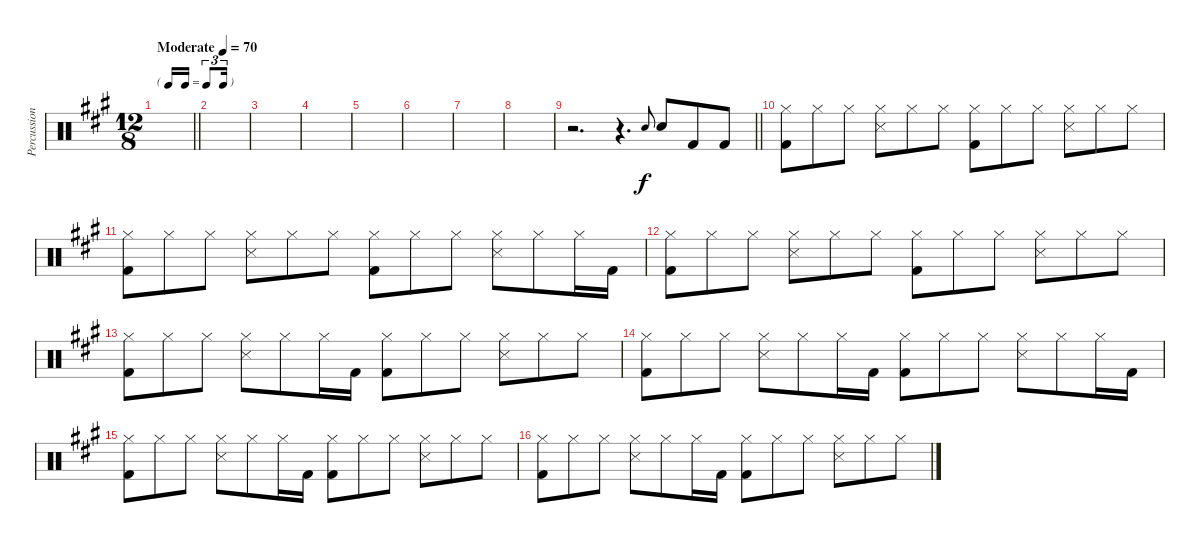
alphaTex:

\track ("Percussion" "Percussion") {instrument percussion}
\staff {score}
\articulation defaults
\ts (12 8)
\tf triplet16th
\tempo (70 "Moderate")
\tempo 60
\tempo (70 "Moderate")
\clef neutral
\barLineRight lightlight
\ks a
|
|
|
|
|
|
|
|
\barLineRight lightlight
r.2{d} r.4{d} "Snare (hit) 2".8{gr onbeat} "Snare (hit) 2".8 "Kick (hit) 2".8 "Kick (hit) 2".8 |
("Hi-Hat (closed)" "Kick (hit) 2").8 "Hi-Hat (closed)".8 "Hi-Hat (closed)".8 ("Hi-Hat (closed)" "Snare (side stick) 3").8 "Hi-Hat (closed)".8 "Hi-Hat (closed)".8 ("Hi-Hat (closed)" "Kick (hit) 2").8 "Hi-Hat (closed)".8 "Hi-Hat (closed)".8 ("Hi-Hat (closed)" "Snare (side stick) 3").8 "Hi-Hat (closed)".8 "Hi-Hat (closed)".8 |
("Hi-Hat (closed)" "Kick (hit) 2").8 "Hi-Hat (closed)".8 "Hi-Hat (closed)".8 ("Hi-Hat (closed)" "Snare (side stick) 3").8 "Hi-Hat (closed)".8 "Hi-Hat (closed)".8 ("Hi-Hat (closed)" "Kick (hit) 2").8 "Hi-Hat (closed)".8 "Hi-Hat (closed)".8 ("Hi-Hat (closed)" "Snare (side stick) 3").8 "Hi-Hat (closed)".8 "Hi-Hat (closed)".16 "Kick (hit) 2".16 |
("Hi-Hat (closed)" "Kick (hit) 2").8 "Hi-Hat (closed)".8 "Hi-Hat (closed)".8 ("Hi-Hat (closed)" "Snare (side stick) 3").8 "Hi-Hat (closed)".8 "Hi-Hat (closed)".8 ("Hi-Hat (closed)" "Kick (hit) 2").8 "Hi-Hat (closed)".8 "Hi-Hat (closed)".8 ("Hi-Hat (closed)" "Snare (side stick) 3").8 "Hi-Hat (closed)".8 "Hi-Hat (closed)".8 |
("Hi-Hat (closed)" "Kick (hit) 2").8 "Hi-Hat (closed)".8 "Hi-Hat (closed)".8 ("Hi-Hat (closed)" "Snare (side stick) 3").8 "Hi-Hat (closed)".8 "Hi-Hat (closed)".16 "Kick (hit) 2".16 ("Hi-Hat (closed)" "Kick (hit) 2").8 "Hi-Hat (closed)".8 "Hi-Hat (closed)".8 ("Hi-Hat (closed)" "Snare (side stick) 3").8 "Hi-Hat (closed)".8 "Hi-Hat (closed)".8 |
("Hi-Hat (closed)" "Kick (hit) 2").8 "Hi-Hat (closed)".8 "Hi-Hat (closed)".8 ("Hi-Hat (closed)" "Snare (side stick) 3").8 "Hi-Hat (closed)".8 "Hi-Hat (closed)".16 "Kick (hit) 2".16 ("Hi-Hat (closed)" "Kick (hit) 2").8 "Hi-Hat (closed)".8 "Hi-Hat (closed)".8 ("Hi-Hat (closed)" "Snare (side stick) 3").8 "Hi-Hat (closed)".8 "Hi-Hat (closed)".16 "Kick (hit) 2".16 |
("Hi-Hat (closed)" "Kick (hit) 2").8 "Hi-Hat (closed)".8 "Hi-Hat (closed)".8 ("Hi-Hat (closed)" "Snare (side stick) 3").8 "Hi-Hat (closed)".8 "Hi-Hat (closed)".16 "Kick (hit) 2".16 ("Hi-Hat (closed)" "Kick (hit) 2").8 "Hi-Hat (closed)".8 "Hi-Hat (closed)".8 ("Hi-Hat (closed)" "Snare (side stick) 3").8 "Hi-Hat (closed)".8 "Hi-Hat (closed)".8 |
("Hi-Hat (closed)" "Kick (hit) 2").8 "Hi-Hat (closed)".8 "Hi-Hat (closed)".8 ("Hi-Hat (closed)" "Snare (side stick) 3").8 "Hi-Hat (closed)".8 "Hi-Hat (closed)".16 "Kick (hit) 2".16 ("Hi-Hat (closed)" "Kick (hit) 2").8 "Hi-Hat (closed)".8 "Hi-Hat (closed)".8 ("Hi-Hat (closed)" "Snare (side stick) 3").8 "Hi-Hat (closed)".8 "Hi-Hat (closed)".8
